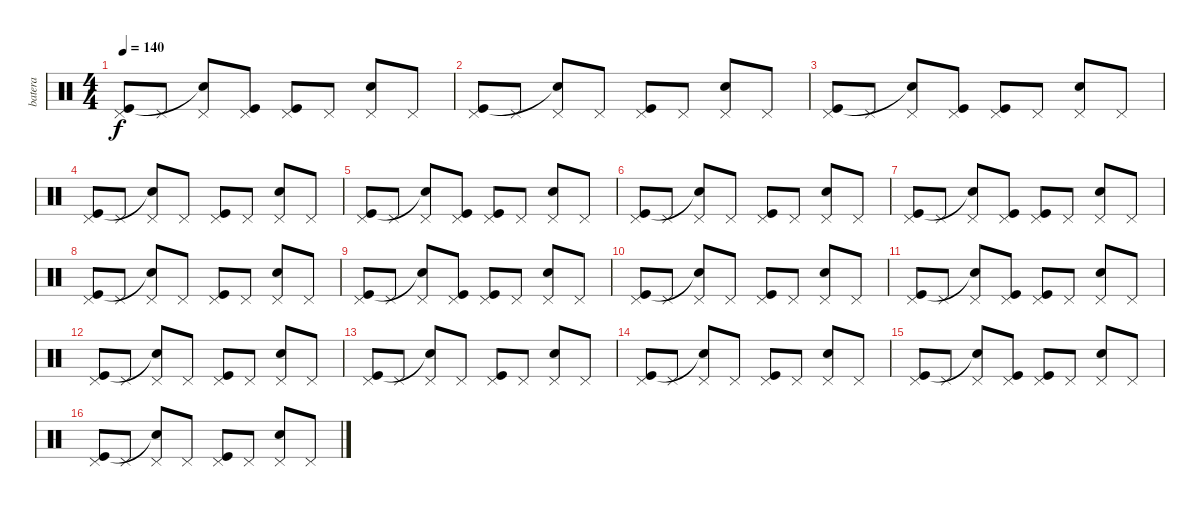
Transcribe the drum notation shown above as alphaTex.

\track ("batera" "batera") {instrument percussion}
\staff {score}
\articulation defaults
\ts (4 4)
\tempo 140
\clef neutral
\ks c
("Pedal Hi-Hat (hit)" "Kick (hit)").8{dy f} "Pedal Hi-Hat (hit)".8 ("Pedal Hi-Hat (hit)" "Snare (hit)"{t}).8 ("Pedal Hi-Hat (hit)" "Kick (hit)").8 ("Pedal Hi-Hat (hit)" "Kick (hit)").8 "Pedal Hi-Hat (hit)".8 ("Pedal Hi-Hat (hit)" "Snare (hit) 2").8 "Pedal Hi-Hat (hit)".8 |
("Pedal Hi-Hat (hit)" "Kick (hit)").8 "Pedal Hi-Hat (hit)".8 ("Pedal Hi-Hat (hit)" "Snare (hit)"{t}).8 "Pedal Hi-Hat (hit)".8 ("Pedal Hi-Hat (hit)" "Kick (hit)").8 "Pedal Hi-Hat (hit)".8 ("Pedal Hi-Hat (hit)" "Snare (hit) 2").8 "Pedal Hi-Hat (hit)".8 |
("Pedal Hi-Hat (hit)" "Kick (hit)").8 "Pedal Hi-Hat (hit)".8 ("Pedal Hi-Hat (hit)" "Snare (hit)"{t}).8 ("Pedal Hi-Hat (hit)" "Kick (hit)").8 ("Pedal Hi-Hat (hit)" "Kick (hit)").8 "Pedal Hi-Hat (hit)".8 ("Pedal Hi-Hat (hit)" "Snare (hit) 2").8 "Pedal Hi-Hat (hit)".8 |
("Pedal Hi-Hat (hit)" "Kick (hit)").8 "Pedal Hi-Hat (hit)".8 ("Pedal Hi-Hat (hit)" "Snare (hit)"{t}).8 "Pedal Hi-Hat (hit)".8 ("Pedal Hi-Hat (hit)" "Kick (hit)").8 "Pedal Hi-Hat (hit)".8 ("Pedal Hi-Hat (hit)" "Snare (hit) 2").8 "Pedal Hi-Hat (hit)".8 |
("Pedal Hi-Hat (hit)" "Kick (hit)").8 "Pedal Hi-Hat (hit)".8 ("Pedal Hi-Hat (hit)" "Snare (hit)"{t}).8 ("Pedal Hi-Hat (hit)" "Kick (hit)").8 ("Pedal Hi-Hat (hit)" "Kick (hit)").8 "Pedal Hi-Hat (hit)".8 ("Pedal Hi-Hat (hit)" "Snare (hit) 2").8 "Pedal Hi-Hat (hit)".8 |
("Pedal Hi-Hat (hit)" "Kick (hit)").8 "Pedal Hi-Hat (hit)".8 ("Pedal Hi-Hat (hit)" "Snare (hit)"{t}).8 "Pedal Hi-Hat (hit)".8 ("Pedal Hi-Hat (hit)" "Kick (hit)").8 "Pedal Hi-Hat (hit)".8 ("Pedal Hi-Hat (hit)" "Snare (hit) 2").8 "Pedal Hi-Hat (hit)".8 |
("Pedal Hi-Hat (hit)" "Kick (hit)").8 "Pedal Hi-Hat (hit)".8 ("Pedal Hi-Hat (hit)" "Snare (hit)"{t}).8 ("Pedal Hi-Hat (hit)" "Kick (hit)").8 ("Pedal Hi-Hat (hit)" "Kick (hit)").8 "Pedal Hi-Hat (hit)".8 ("Pedal Hi-Hat (hit)" "Snare (hit) 2").8 "Pedal Hi-Hat (hit)".8 |
("Pedal Hi-Hat (hit)" "Kick (hit)").8 "Pedal Hi-Hat (hit)".8 ("Pedal Hi-Hat (hit)" "Snare (hit)"{t}).8 "Pedal Hi-Hat (hit)".8 ("Pedal Hi-Hat (hit)" "Kick (hit)").8 "Pedal Hi-Hat (hit)".8 ("Pedal Hi-Hat (hit)" "Snare (hit) 2").8 "Pedal Hi-Hat (hit)".8 |
("Pedal Hi-Hat (hit)" "Kick (hit)").8 "Pedal Hi-Hat (hit)".8 ("Pedal Hi-Hat (hit)" "Snare (hit)"{t}).8 ("Pedal Hi-Hat (hit)" "Kick (hit)").8 ("Pedal Hi-Hat (hit)" "Kick (hit)").8 "Pedal Hi-Hat (hit)".8 ("Pedal Hi-Hat (hit)" "Snare (hit) 2").8 "Pedal Hi-Hat (hit)".8 |
("Pedal Hi-Hat (hit)" "Kick (hit)").8 "Pedal Hi-Hat (hit)".8 ("Pedal Hi-Hat (hit)" "Snare (hit)"{t}).8 "Pedal Hi-Hat (hit)".8 ("Pedal Hi-Hat (hit)" "Kick (hit)").8 "Pedal Hi-Hat (hit)".8 ("Pedal Hi-Hat (hit)" "Snare (hit) 2").8 "Pedal Hi-Hat (hit)".8 |
("Pedal Hi-Hat (hit)" "Kick (hit)").8 "Pedal Hi-Hat (hit)".8 ("Pedal Hi-Hat (hit)" "Snare (hit)"{t}).8 ("Pedal Hi-Hat (hit)" "Kick (hit)").8 ("Pedal Hi-Hat (hit)" "Kick (hit)").8 "Pedal Hi-Hat (hit)".8 ("Pedal Hi-Hat (hit)" "Snare (hit) 2").8 "Pedal Hi-Hat (hit)".8 |
("Pedal Hi-Hat (hit)" "Kick (hit)").8 "Pedal Hi-Hat (hit)".8 ("Pedal Hi-Hat (hit)" "Snare (hit)"{t}).8 "Pedal Hi-Hat (hit)".8 ("Pedal Hi-Hat (hit)" "Kick (hit)").8 "Pedal Hi-Hat (hit)".8 ("Pedal Hi-Hat (hit)" "Snare (hit) 2").8 "Pedal Hi-Hat (hit)".8 |
("Pedal Hi-Hat (hit)" "Kick (hit)").8 "Pedal Hi-Hat (hit)".8 ("Pedal Hi-Hat (hit)" "Snare (hit)"{t}).8 "Pedal Hi-Hat (hit)".8 ("Pedal Hi-Hat (hit)" "Kick (hit)").8 "Pedal Hi-Hat (hit)".8 ("Pedal Hi-Hat (hit)" "Snare (hit) 2").8 "Pedal Hi-Hat (hit)".8 |
("Pedal Hi-Hat (hit)" "Kick (hit)").8 "Pedal Hi-Hat (hit)".8 ("Pedal Hi-Hat (hit)" "Snare (hit)"{t}).8 "Pedal Hi-Hat (hit)".8 ("Pedal Hi-Hat (hit)" "Kick (hit)").8 "Pedal Hi-Hat (hit)".8 ("Pedal Hi-Hat (hit)" "Snare (hit) 2").8 "Pedal Hi-Hat (hit)".8 |
("Pedal Hi-Hat (hit)" "Kick (hit)").8 "Pedal Hi-Hat (hit)".8 ("Pedal Hi-Hat (hit)" "Snare (hit)"{t}).8 ("Pedal Hi-Hat (hit)" "Kick (hit)").8 ("Pedal Hi-Hat (hit)" "Kick (hit)").8 "Pedal Hi-Hat (hit)".8 ("Pedal Hi-Hat (hit)" "Snare (hit) 2").8 "Pedal Hi-Hat (hit)".8 |
("Pedal Hi-Hat (hit)" "Kick (hit)").8 "Pedal Hi-Hat (hit)".8 ("Pedal Hi-Hat (hit)" "Snare (hit)"{t}).8 "Pedal Hi-Hat (hit)".8 ("Pedal Hi-Hat (hit)" "Kick (hit)").8 "Pedal Hi-Hat (hit)".8 ("Pedal Hi-Hat (hit)" "Snare (hit) 2").8 "Pedal Hi-Hat (hit)".8
